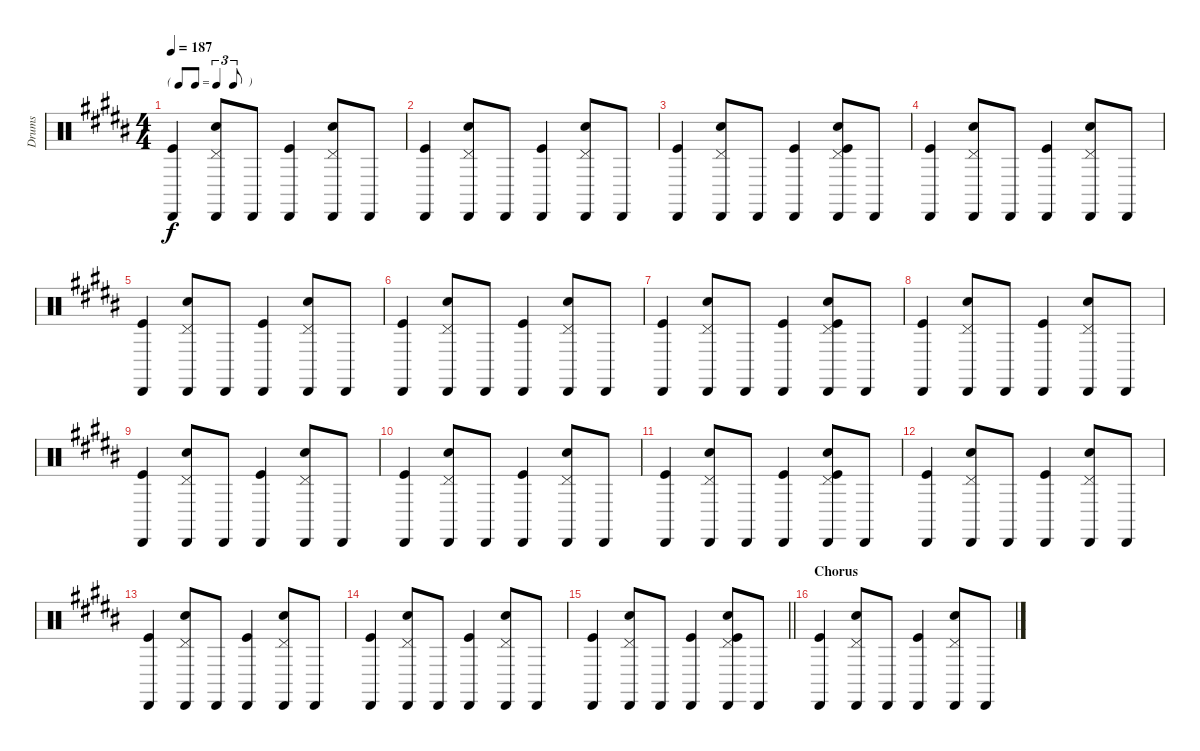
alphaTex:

\track ("Drums" "Drums") {instrument percussion}
\staff {score}
\articulation defaults
\ts (4 4)
\tf triplet8th
\tempo 187
\clef neutral
\ks b
("Cabasa (hit)" "Kick (hit)").4{dy f} ("Pedal Hi-Hat (hit)" "Cabasa (hit)" "Snare (hit) 2").8 "Cabasa (hit)".8 ("Cabasa (hit)" "Kick (hit)").4 ("Pedal Hi-Hat (hit)" "Cabasa (hit)" "Snare (hit) 2").8 "Cabasa (hit)".8 |
("Cabasa (hit)" "Kick (hit)").4 ("Pedal Hi-Hat (hit)" "Cabasa (hit)" "Snare (hit) 2").8 "Cabasa (hit)".8 ("Cabasa (hit)" "Kick (hit)").4 ("Pedal Hi-Hat (hit)" "Cabasa (hit)" "Snare (hit) 2").8 "Cabasa (hit)".8 |
("Cabasa (hit)" "Kick (hit)").4 ("Pedal Hi-Hat (hit)" "Cabasa (hit)" "Snare (hit) 2").8 "Cabasa (hit)".8 ("Cabasa (hit)" "Kick (hit)").4 ("Pedal Hi-Hat (hit)" "Cabasa (hit)" "Snare (hit) 2" "Kick (hit)").8 "Cabasa (hit)".8 |
("Cabasa (hit)" "Kick (hit)").4 ("Pedal Hi-Hat (hit)" "Cabasa (hit)" "Snare (hit) 2").8 "Cabasa (hit)".8 ("Cabasa (hit)" "Kick (hit)").4 ("Pedal Hi-Hat (hit)" "Cabasa (hit)" "Snare (hit) 2").8 "Cabasa (hit)".8 |
("Cabasa (hit)" "Kick (hit)").4 ("Pedal Hi-Hat (hit)" "Cabasa (hit)" "Snare (hit) 2").8 "Cabasa (hit)".8 ("Cabasa (hit)" "Kick (hit)").4 ("Pedal Hi-Hat (hit)" "Cabasa (hit)" "Snare (hit) 2").8 "Cabasa (hit)".8 |
("Cabasa (hit)" "Kick (hit)").4 ("Pedal Hi-Hat (hit)" "Cabasa (hit)" "Snare (hit) 2").8 "Cabasa (hit)".8 ("Cabasa (hit)" "Kick (hit)").4 ("Pedal Hi-Hat (hit)" "Cabasa (hit)" "Snare (hit) 2").8 "Cabasa (hit)".8 |
("Cabasa (hit)" "Kick (hit)").4 ("Pedal Hi-Hat (hit)" "Cabasa (hit)" "Snare (hit) 2").8 "Cabasa (hit)".8 ("Cabasa (hit)" "Kick (hit)").4 ("Pedal Hi-Hat (hit)" "Cabasa (hit)" "Snare (hit) 2" "Kick (hit)").8 "Cabasa (hit)".8 |
("Cabasa (hit)" "Kick (hit)").4 ("Pedal Hi-Hat (hit)" "Cabasa (hit)" "Snare (hit) 2").8 "Cabasa (hit)".8 ("Cabasa (hit)" "Kick (hit)").4 ("Pedal Hi-Hat (hit)" "Cabasa (hit)" "Snare (hit) 2").8 "Cabasa (hit)".8 |
("Cabasa (hit)" "Kick (hit)").4 ("Pedal Hi-Hat (hit)" "Cabasa (hit)" "Snare (hit) 2").8 "Cabasa (hit)".8 ("Cabasa (hit)" "Kick (hit)").4 ("Pedal Hi-Hat (hit)" "Cabasa (hit)" "Snare (hit) 2").8 "Cabasa (hit)".8 |
("Cabasa (hit)" "Kick (hit)").4 ("Pedal Hi-Hat (hit)" "Cabasa (hit)" "Snare (hit) 2").8 "Cabasa (hit)".8 ("Cabasa (hit)" "Kick (hit)").4 ("Pedal Hi-Hat (hit)" "Cabasa (hit)" "Snare (hit) 2").8 "Cabasa (hit)".8 |
("Cabasa (hit)" "Kick (hit)").4 ("Pedal Hi-Hat (hit)" "Cabasa (hit)" "Snare (hit) 2").8 "Cabasa (hit)".8 ("Cabasa (hit)" "Kick (hit)").4 ("Pedal Hi-Hat (hit)" "Cabasa (hit)" "Snare (hit) 2" "Kick (hit)").8 "Cabasa (hit)".8 |
("Cabasa (hit)" "Kick (hit)").4 ("Pedal Hi-Hat (hit)" "Cabasa (hit)" "Snare (hit) 2").8 "Cabasa (hit)".8 ("Cabasa (hit)" "Kick (hit)").4 ("Pedal Hi-Hat (hit)" "Cabasa (hit)" "Snare (hit) 2").8 "Cabasa (hit)".8 |
("Cabasa (hit)" "Kick (hit)").4 ("Pedal Hi-Hat (hit)" "Cabasa (hit)" "Snare (hit) 2").8 "Cabasa (hit)".8 ("Cabasa (hit)" "Kick (hit)").4 ("Pedal Hi-Hat (hit)" "Cabasa (hit)" "Snare (hit) 2").8 "Cabasa (hit)".8 |
("Cabasa (hit)" "Kick (hit)").4 ("Pedal Hi-Hat (hit)" "Cabasa (hit)" "Snare (hit) 2").8 "Cabasa (hit)".8 ("Cabasa (hit)" "Kick (hit)").4 ("Pedal Hi-Hat (hit)" "Cabasa (hit)" "Snare (hit) 2").8 "Cabasa (hit)".8 |
\barLineRight lightlight
("Cabasa (hit)" "Kick (hit)").4 ("Pedal Hi-Hat (hit)" "Cabasa (hit)" "Snare (hit) 2").8 "Cabasa (hit)".8 ("Cabasa (hit)" "Kick (hit)").4 ("Pedal Hi-Hat (hit)" "Cabasa (hit)" "Snare (hit) 2" "Kick (hit)").8 "Cabasa (hit)".8 |
\section ("" "Chorus")
("Cabasa (hit)" "Kick (hit)").4 ("Pedal Hi-Hat (hit)" "Cabasa (hit)" "Snare (hit) 2").8 "Cabasa (hit)".8 ("Cabasa (hit)" "Kick (hit)").4 ("Pedal Hi-Hat (hit)" "Cabasa (hit)" "Snare (hit) 2").8 "Cabasa (hit)".8
